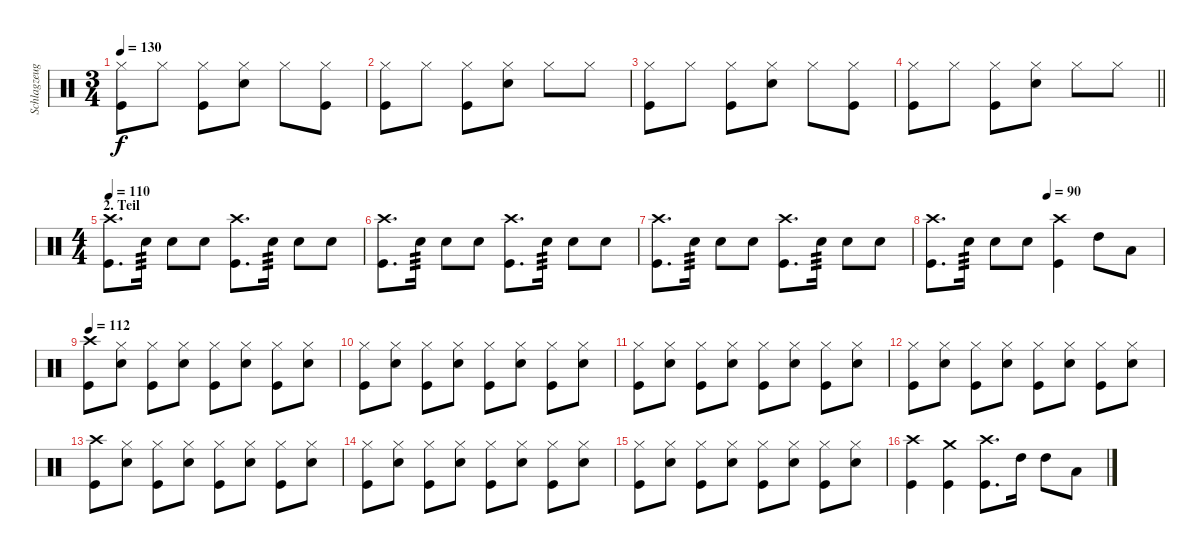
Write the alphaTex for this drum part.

\track ("Schlagzeug" "Schlagzeug") {instrument percussion}
\staff {score}
\articulation defaults
\ts (3 4)
\tempo 130
\clef neutral
\ks c
("Hi-Hat (closed)" "Kick (hit)").8{dy f} "Hi-Hat (closed)".8 ("Hi-Hat (closed)" "Kick (hit)").8 ("Hi-Hat (closed)" "Snare (hit) 2").8 "Hi-Hat (closed)".8 ("Hi-Hat (closed)" "Kick (hit)").8 |
("Hi-Hat (closed)" "Kick (hit)").8 "Hi-Hat (closed)".8 ("Hi-Hat (closed)" "Kick (hit)").8 ("Hi-Hat (closed)" "Snare (hit) 2").8 "Hi-Hat (closed)".8 "Hi-Hat (closed)".8 |
("Hi-Hat (closed)" "Kick (hit)").8 "Hi-Hat (closed)".8 ("Hi-Hat (closed)" "Kick (hit)").8 ("Hi-Hat (closed)" "Snare (hit) 2").8 "Hi-Hat (closed)".8 ("Hi-Hat (closed)" "Kick (hit)").8 |
\barLineRight lightlight
("Hi-Hat (closed)" "Kick (hit)").8 "Hi-Hat (closed)".8 ("Hi-Hat (closed)" "Kick (hit)").8 ("Hi-Hat (closed)" "Snare (hit) 2").8 "Hi-Hat (closed)".8 "Hi-Hat (closed)".8 |
\ts (4 4)
\section ("" "2. Teil")
\tempo 110
("Crash high (hit)" "Kick (hit)").8{d} "Snare (hit) 2".16{tp 3} "Snare (hit) 2".8 "Snare (hit) 2".8 ("Crash high (hit)" "Kick (hit)").8{d} "Snare (hit) 2".16{tp 3} "Snare (hit) 2".8 "Snare (hit) 2".8 |
("Crash high (hit)" "Kick (hit)").8{d} "Snare (hit) 2".16{tp 3} "Snare (hit) 2".8 "Snare (hit) 2".8 ("Crash high (hit)" "Kick (hit)").8{d} "Snare (hit) 2".16{tp 3} "Snare (hit) 2".8 "Snare (hit) 2".8 |
("Crash high (hit)" "Kick (hit)").8{d} "Snare (hit) 2".16{tp 3} "Snare (hit) 2".8 "Snare (hit) 2".8 ("Crash high (hit)" "Kick (hit)").8{d} "Snare (hit) 2".16{tp 3} "Snare (hit) 2".8 "Snare (hit) 2".8 |
\tempo (90 0.5)
("Crash high (hit)" "Kick (hit)").8{d} "Snare (hit) 2".16{tp 3} "Snare (hit) 2".8 "Snare (hit) 2".8 ("Crash high (hit)" "Kick (hit)").4 "High Tom (hit)".8 "Low Tom (hit)".8 |
\tempo 112
("Crash high (hit)" "Kick (hit)").8 ("Hi-Hat (closed)" "Snare (hit) 2").8 ("Hi-Hat (closed)" "Kick (hit)").8 ("Hi-Hat (closed)" "Snare (hit) 2").8 ("Hi-Hat (closed)" "Kick (hit)").8 ("Hi-Hat (closed)" "Snare (hit) 2").8 ("Hi-Hat (closed)" "Kick (hit)").8 ("Hi-Hat (closed)" "Snare (hit) 2").8 |
("Hi-Hat (closed)" "Kick (hit)").8 ("Hi-Hat (closed)" "Snare (hit) 2").8 ("Hi-Hat (closed)" "Kick (hit)").8 ("Hi-Hat (closed)" "Snare (hit) 2").8 ("Hi-Hat (closed)" "Kick (hit)").8 ("Hi-Hat (closed)" "Snare (hit) 2").8 ("Hi-Hat (closed)" "Kick (hit)").8 ("Hi-Hat (closed)" "Snare (hit) 2").8 |
("Hi-Hat (closed)" "Kick (hit)").8 ("Hi-Hat (closed)" "Snare (hit) 2").8 ("Hi-Hat (closed)" "Kick (hit)").8 ("Hi-Hat (closed)" "Snare (hit) 2").8 ("Hi-Hat (closed)" "Kick (hit)").8 ("Hi-Hat (closed)" "Snare (hit) 2").8 ("Hi-Hat (closed)" "Kick (hit)").8 ("Hi-Hat (closed)" "Snare (hit) 2").8 |
("Hi-Hat (closed)" "Kick (hit)").8 ("Hi-Hat (closed)" "Snare (hit) 2").8 ("Hi-Hat (closed)" "Kick (hit)").8 ("Hi-Hat (closed)" "Snare (hit) 2").8 ("Hi-Hat (closed)" "Kick (hit)").8 ("Hi-Hat (closed)" "Snare (hit) 2").8 ("Hi-Hat (closed)" "Kick (hit)").8 ("Hi-Hat (closed)" "Snare (hit) 2").8 |
("Crash high (hit)" "Kick (hit)").8 ("Hi-Hat (closed)" "Snare (hit) 2").8 ("Hi-Hat (closed)" "Kick (hit)").8 ("Hi-Hat (closed)" "Snare (hit) 2").8 ("Hi-Hat (closed)" "Kick (hit)").8 ("Hi-Hat (closed)" "Snare (hit) 2").8 ("Hi-Hat (closed)" "Kick (hit)").8 ("Hi-Hat (closed)" "Snare (hit) 2").8 |
("Hi-Hat (closed)" "Kick (hit)").8 ("Hi-Hat (closed)" "Snare (hit) 2").8 ("Hi-Hat (closed)" "Kick (hit)").8 ("Hi-Hat (closed)" "Snare (hit) 2").8 ("Hi-Hat (closed)" "Kick (hit)").8 ("Hi-Hat (closed)" "Snare (hit) 2").8 ("Hi-Hat (closed)" "Kick (hit)").8 ("Hi-Hat (closed)" "Snare (hit) 2").8 |
("Hi-Hat (closed)" "Kick (hit)").8 ("Hi-Hat (closed)" "Snare (hit) 2").8 ("Hi-Hat (closed)" "Kick (hit)").8 ("Hi-Hat (closed)" "Snare (hit) 2").8 ("Hi-Hat (closed)" "Kick (hit)").8 ("Hi-Hat (closed)" "Snare (hit) 2").8 ("Hi-Hat (closed)" "Kick (hit)").8 ("Hi-Hat (closed)" "Snare (hit) 2").8 |
("Crash high (hit)" "Kick (hit)").4 ("Crash medium (hit)" "Kick (hit)").4 ("Crash high (hit)" "Kick (hit)").8{d} "High Tom (hit)".16 "High Tom (hit)".8 "Low Tom (hit)".8
